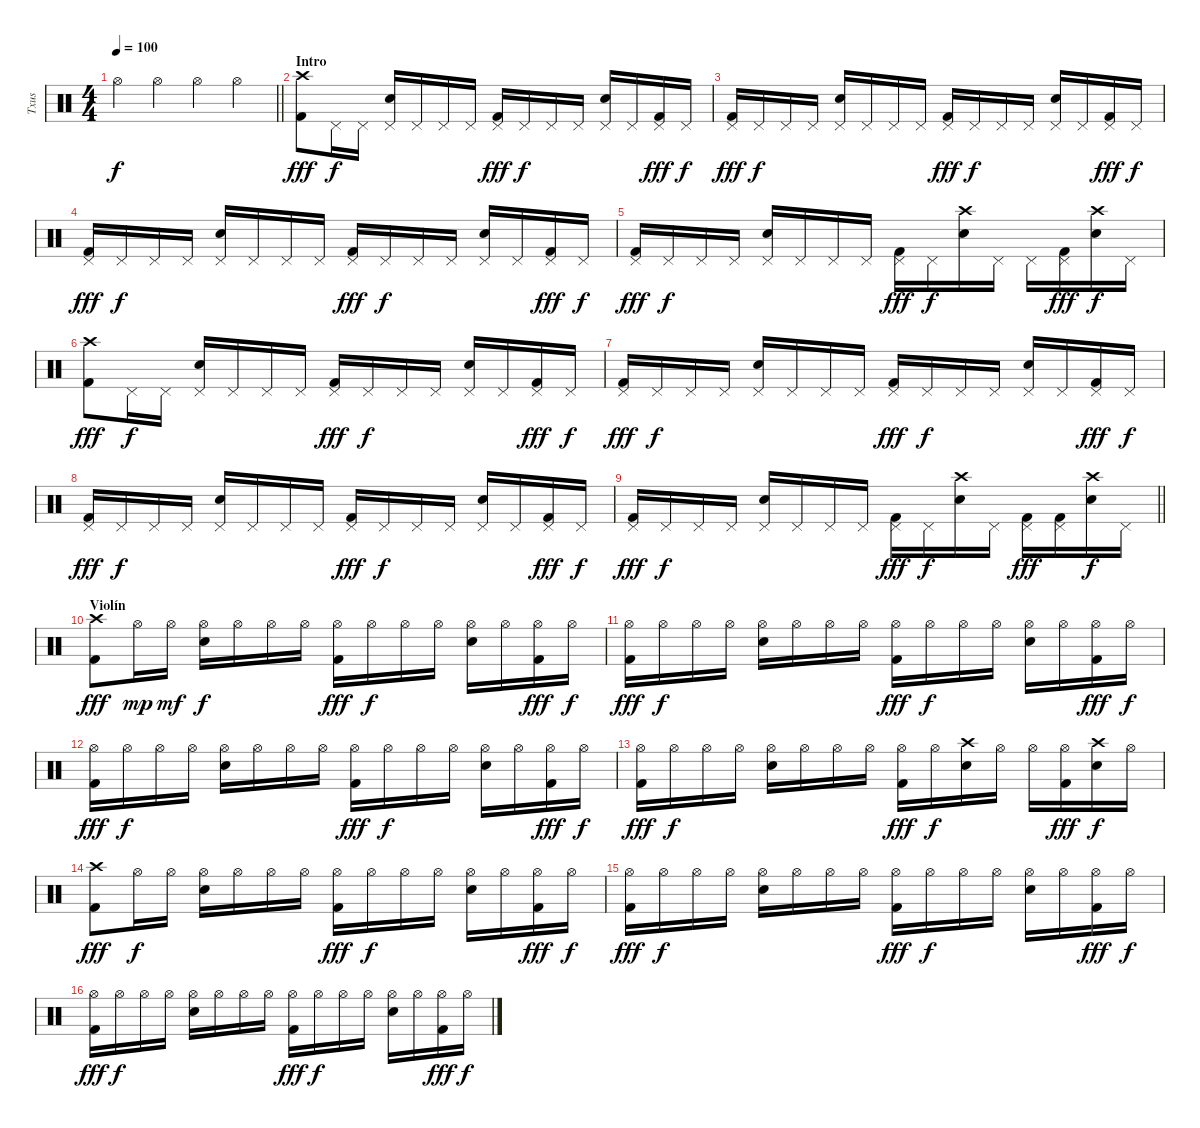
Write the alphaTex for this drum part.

\track ("Txus" "Txus") {instrument percussion}
\staff {score}
\articulation defaults
\ts (4 4)
\tempo 100
\clef neutral
\barLineRight lightlight
\ks c "Hi-Hat (open)".4{dy f} "Hi-Hat (open)".4 "Hi-Hat (open)".4 "Hi-Hat (open)".4
|
\section ("" "Intro")
("Kick (hit) 2" "Crash high (hit)").8{dy fff} "Pedal Hi-Hat (hit)".16{dy f} "Pedal Hi-Hat (hit)".16 ("Electric Snare (hit)" "Pedal Hi-Hat (hit)").16 "Pedal Hi-Hat (hit)".16 "Pedal Hi-Hat (hit)".16 "Pedal Hi-Hat (hit)".16 ("Kick (hit) 2" "Pedal Hi-Hat (hit)").16{dy fff} "Pedal Hi-Hat (hit)".16{dy f} "Pedal Hi-Hat (hit)".16 "Pedal Hi-Hat (hit)".16 ("Electric Snare (hit)" "Pedal Hi-Hat (hit)").16 "Pedal Hi-Hat (hit)".16 ("Kick (hit) 2" "Pedal Hi-Hat (hit)").16{dy fff} "Pedal Hi-Hat (hit)".16{dy f} |
("Kick (hit) 2" "Pedal Hi-Hat (hit)").16{dy fff} "Pedal Hi-Hat (hit)".16{dy f} "Pedal Hi-Hat (hit)".16 "Pedal Hi-Hat (hit)".16 ("Electric Snare (hit)" "Pedal Hi-Hat (hit)").16 "Pedal Hi-Hat (hit)".16 "Pedal Hi-Hat (hit)".16 "Pedal Hi-Hat (hit)".16 ("Kick (hit) 2" "Pedal Hi-Hat (hit)").16{dy fff} "Pedal Hi-Hat (hit)".16{dy f} "Pedal Hi-Hat (hit)".16 "Pedal Hi-Hat (hit)".16 ("Electric Snare (hit)" "Pedal Hi-Hat (hit)").16 "Pedal Hi-Hat (hit)".16 ("Kick (hit) 2" "Pedal Hi-Hat (hit)").16{dy fff} "Pedal Hi-Hat (hit)".16{dy f} |
("Kick (hit) 2" "Pedal Hi-Hat (hit)").16{dy fff} "Pedal Hi-Hat (hit)".16{dy f} "Pedal Hi-Hat (hit)".16 "Pedal Hi-Hat (hit)".16 ("Electric Snare (hit)" "Pedal Hi-Hat (hit)").16 "Pedal Hi-Hat (hit)".16 "Pedal Hi-Hat (hit)".16 "Pedal Hi-Hat (hit)".16 ("Kick (hit) 2" "Pedal Hi-Hat (hit)").16{dy fff} "Pedal Hi-Hat (hit)".16{dy f} "Pedal Hi-Hat (hit)".16 "Pedal Hi-Hat (hit)".16 ("Electric Snare (hit)" "Pedal Hi-Hat (hit)").16 "Pedal Hi-Hat (hit)".16 ("Kick (hit) 2" "Pedal Hi-Hat (hit)").16{dy fff} "Pedal Hi-Hat (hit)".16{dy f} |
("Kick (hit) 2" "Pedal Hi-Hat (hit)").16{dy fff} "Pedal Hi-Hat (hit)".16{dy f} "Pedal Hi-Hat (hit)".16 "Pedal Hi-Hat (hit)".16 ("Electric Snare (hit)" "Pedal Hi-Hat (hit)").16 "Pedal Hi-Hat (hit)".16 "Pedal Hi-Hat (hit)".16 "Pedal Hi-Hat (hit)".16 ("Kick (hit) 2" "Pedal Hi-Hat (hit)").16{dy fff} "Pedal Hi-Hat (hit)".16{dy f} ("Electric Snare (hit)" "Crash high (hit)").16 "Pedal Hi-Hat (hit)".16 "Pedal Hi-Hat (hit)".16 ("Kick (hit) 2" "Pedal Hi-Hat (hit)").16{dy fff} ("Electric Snare (hit)" "Crash high (hit)").16{dy f} "Pedal Hi-Hat (hit)".16 |
("Kick (hit) 2" "Crash high (hit)").8{dy fff} "Pedal Hi-Hat (hit)".16{dy f} "Pedal Hi-Hat (hit)".16 ("Electric Snare (hit)" "Pedal Hi-Hat (hit)").16 "Pedal Hi-Hat (hit)".16 "Pedal Hi-Hat (hit)".16 "Pedal Hi-Hat (hit)".16 ("Kick (hit) 2" "Pedal Hi-Hat (hit)").16{dy fff} "Pedal Hi-Hat (hit)".16{dy f} "Pedal Hi-Hat (hit)".16 "Pedal Hi-Hat (hit)".16 ("Electric Snare (hit)" "Pedal Hi-Hat (hit)").16 "Pedal Hi-Hat (hit)".16 ("Kick (hit) 2" "Pedal Hi-Hat (hit)").16{dy fff} "Pedal Hi-Hat (hit)".16{dy f} |
("Kick (hit) 2" "Pedal Hi-Hat (hit)").16{dy fff} "Pedal Hi-Hat (hit)".16{dy f} "Pedal Hi-Hat (hit)".16 "Pedal Hi-Hat (hit)".16 ("Electric Snare (hit)" "Pedal Hi-Hat (hit)").16 "Pedal Hi-Hat (hit)".16 "Pedal Hi-Hat (hit)".16 "Pedal Hi-Hat (hit)".16 ("Kick (hit) 2" "Pedal Hi-Hat (hit)").16{dy fff} "Pedal Hi-Hat (hit)".16{dy f} "Pedal Hi-Hat (hit)".16 "Pedal Hi-Hat (hit)".16 ("Electric Snare (hit)" "Pedal Hi-Hat (hit)").16 "Pedal Hi-Hat (hit)".16 ("Kick (hit) 2" "Pedal Hi-Hat (hit)").16{dy fff} "Pedal Hi-Hat (hit)".16{dy f} |
("Kick (hit) 2" "Pedal Hi-Hat (hit)").16{dy fff} "Pedal Hi-Hat (hit)".16{dy f} "Pedal Hi-Hat (hit)".16 "Pedal Hi-Hat (hit)".16 ("Electric Snare (hit)" "Pedal Hi-Hat (hit)").16 "Pedal Hi-Hat (hit)".16 "Pedal Hi-Hat (hit)".16 "Pedal Hi-Hat (hit)".16 ("Kick (hit) 2" "Pedal Hi-Hat (hit)").16{dy fff} "Pedal Hi-Hat (hit)".16{dy f} "Pedal Hi-Hat (hit)".16 "Pedal Hi-Hat (hit)".16 ("Electric Snare (hit)" "Pedal Hi-Hat (hit)").16 "Pedal Hi-Hat (hit)".16 ("Kick (hit) 2" "Pedal Hi-Hat (hit)").16{dy fff} "Pedal Hi-Hat (hit)".16{dy f} |
\barLineRight lightlight
("Kick (hit) 2" "Pedal Hi-Hat (hit)").16{dy fff} "Pedal Hi-Hat (hit)".16{dy f} "Pedal Hi-Hat (hit)".16 "Pedal Hi-Hat (hit)".16 ("Electric Snare (hit)" "Pedal Hi-Hat (hit)").16 "Pedal Hi-Hat (hit)".16 "Pedal Hi-Hat (hit)".16 "Pedal Hi-Hat (hit)".16 ("Kick (hit) 2" "Pedal Hi-Hat (hit)").16{dy fff} "Pedal Hi-Hat (hit)".16{dy f} ("Electric Snare (hit)" "Crash high (hit)").16 "Pedal Hi-Hat (hit)".16 ("Kick (hit) 2" "Pedal Hi-Hat (hit)").16{dy fff} ("Kick (hit) 2" "Pedal Hi-Hat (hit)").16 ("Electric Snare (hit)" "Crash high (hit)").16{dy f} "Pedal Hi-Hat (hit)".16 |
\section ("" "Violín")
("Kick (hit) 2" "Crash high (hit)").8{dy fff} "Hi-Hat (open)".16{dy mp} "Hi-Hat (open)".16{dy mf} ("Electric Snare (hit)" "Hi-Hat (open)").16{dy f} "Hi-Hat (open)".16 "Hi-Hat (open)".16 "Hi-Hat (open)".16 ("Kick (hit) 2" "Hi-Hat (open)").16{dy fff} "Hi-Hat (open)".16{dy f} "Hi-Hat (open)".16 "Hi-Hat (open)".16 ("Electric Snare (hit)" "Hi-Hat (open)").16 "Hi-Hat (open)".16 ("Kick (hit) 2" "Hi-Hat (open)").16{dy fff} "Hi-Hat (open)".16{dy f} |
("Kick (hit) 2" "Hi-Hat (open)").16{dy fff} "Hi-Hat (open)".16{dy f} "Hi-Hat (open)".16 "Hi-Hat (open)".16 ("Electric Snare (hit)" "Hi-Hat (open)").16 "Hi-Hat (open)".16 "Hi-Hat (open)".16 "Hi-Hat (open)".16 ("Kick (hit) 2" "Hi-Hat (open)").16{dy fff} "Hi-Hat (open)".16{dy f} "Hi-Hat (open)".16 "Hi-Hat (open)".16 ("Electric Snare (hit)" "Hi-Hat (open)").16 "Hi-Hat (open)".16 ("Kick (hit) 2" "Hi-Hat (open)").16{dy fff} "Hi-Hat (open)".16{dy f} |
("Kick (hit) 2" "Hi-Hat (open)").16{dy fff} "Hi-Hat (open)".16{dy f} "Hi-Hat (open)".16 "Hi-Hat (open)".16 ("Electric Snare (hit)" "Hi-Hat (open)").16 "Hi-Hat (open)".16 "Hi-Hat (open)".16 "Hi-Hat (open)".16 ("Kick (hit) 2" "Hi-Hat (open)").16{dy fff} "Hi-Hat (open)".16{dy f} "Hi-Hat (open)".16 "Hi-Hat (open)".16 ("Electric Snare (hit)" "Hi-Hat (open)").16 "Hi-Hat (open)".16 ("Kick (hit) 2" "Hi-Hat (open)").16{dy fff} "Hi-Hat (open)".16{dy f} |
("Kick (hit) 2" "Hi-Hat (open)").16{dy fff} "Hi-Hat (open)".16{dy f} "Hi-Hat (open)".16 "Hi-Hat (open)".16 ("Electric Snare (hit)" "Hi-Hat (open)").16 "Hi-Hat (open)".16 "Hi-Hat (open)".16 "Hi-Hat (open)".16 ("Kick (hit) 2" "Hi-Hat (open)").16{dy fff} "Hi-Hat (open)".16{dy f} ("Electric Snare (hit)" "Crash high (hit)").16 "Hi-Hat (open)".16 "Hi-Hat (open)".16 ("Kick (hit) 2" "Hi-Hat (open)").16{dy fff} ("Electric Snare (hit)" "Crash high (hit)").16{dy f} "Hi-Hat (open)".16 |
("Kick (hit) 2" "Crash high (hit)").8{dy fff} "Hi-Hat (open)".16{dy f} "Hi-Hat (open)".16 ("Electric Snare (hit)" "Hi-Hat (open)").16 "Hi-Hat (open)".16 "Hi-Hat (open)".16 "Hi-Hat (open)".16 ("Kick (hit) 2" "Hi-Hat (open)").16{dy fff} "Hi-Hat (open)".16{dy f} "Hi-Hat (open)".16 "Hi-Hat (open)".16 ("Electric Snare (hit)" "Hi-Hat (open)").16 "Hi-Hat (open)".16 ("Kick (hit) 2" "Hi-Hat (open)").16{dy fff} "Hi-Hat (open)".16{dy f} |
("Kick (hit) 2" "Hi-Hat (open)").16{dy fff} "Hi-Hat (open)".16{dy f} "Hi-Hat (open)".16 "Hi-Hat (open)".16 ("Electric Snare (hit)" "Hi-Hat (open)").16 "Hi-Hat (open)".16 "Hi-Hat (open)".16 "Hi-Hat (open)".16 ("Kick (hit) 2" "Hi-Hat (open)").16{dy fff} "Hi-Hat (open)".16{dy f} "Hi-Hat (open)".16 "Hi-Hat (open)".16 ("Electric Snare (hit)" "Hi-Hat (open)").16 "Hi-Hat (open)".16 ("Kick (hit) 2" "Hi-Hat (open)").16{dy fff} "Hi-Hat (open)".16{dy f} |
("Kick (hit) 2" "Hi-Hat (open)").16{dy fff} "Hi-Hat (open)".16{dy f} "Hi-Hat (open)".16 "Hi-Hat (open)".16 ("Electric Snare (hit)" "Hi-Hat (open)").16 "Hi-Hat (open)".16 "Hi-Hat (open)".16 "Hi-Hat (open)".16 ("Kick (hit) 2" "Hi-Hat (open)").16{dy fff} "Hi-Hat (open)".16{dy f} "Hi-Hat (open)".16 "Hi-Hat (open)".16 ("Electric Snare (hit)" "Hi-Hat (open)").16 "Hi-Hat (open)".16 ("Kick (hit) 2" "Hi-Hat (open)").16{dy fff} "Hi-Hat (open)".16{dy f}
